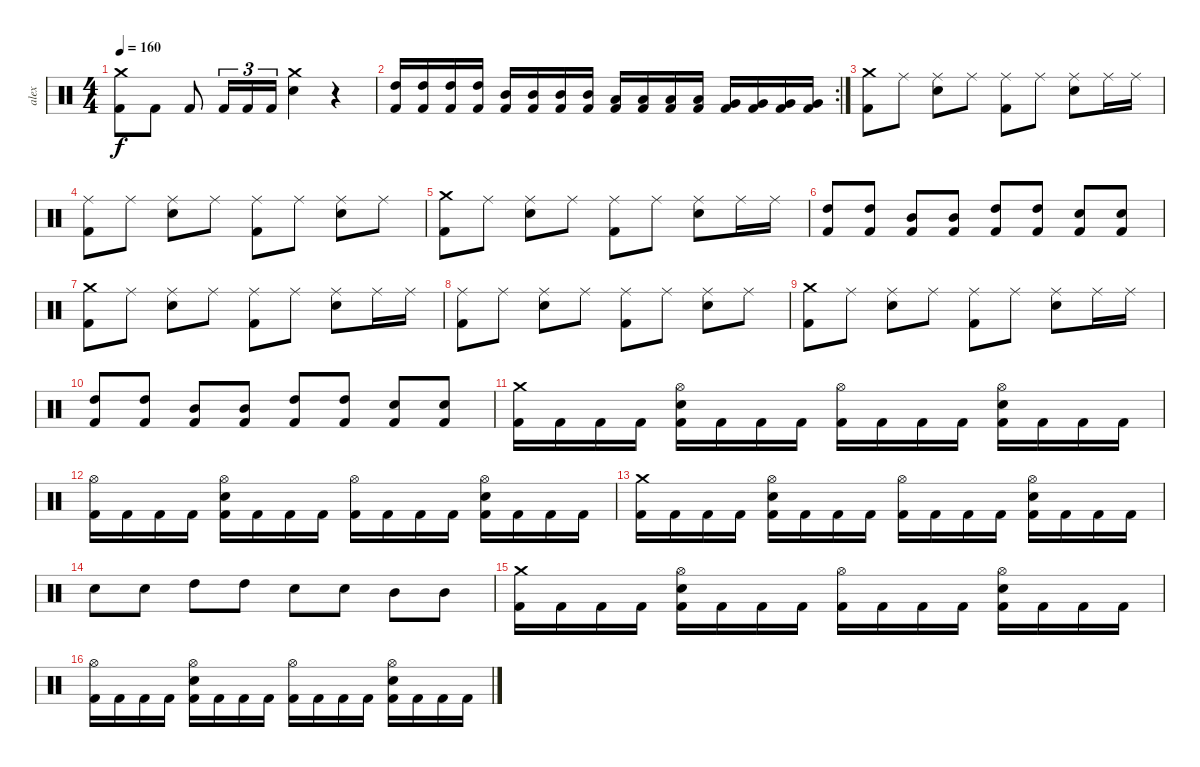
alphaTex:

\track ("alex" "alex") {instrument percussion}
\staff {score}
\articulation defaults
\ts (4 4)
\tempo 160
\clef neutral
\ks c
("Crash medium (hit)" "Kick (hit) 2").8{dy f} "Kick (hit) 2".8 "Kick (hit) 2".8 "Kick (hit) 2".16{tu (3 2)} "Kick (hit) 2".16{tu (3 2)} "Kick (hit) 2".16{tu (3 2)} ("Crash medium (hit)" "Electric Snare (hit)").4 r.4 |
\rc 2
("High Tom (hit)" "Kick (hit) 2").16 ("High Tom (hit)" "Kick (hit) 2").16 ("High Tom (hit)" "Kick (hit) 2").16 ("High Tom (hit)" "Kick (hit) 2").16 ("Mid Tom (hit)" "Kick (hit) 2").16 ("Mid Tom (hit)" "Kick (hit) 2").16 ("Mid Tom (hit)" "Kick (hit) 2").16 ("Mid Tom (hit)" "Kick (hit) 2").16 ("Low Tom (hit)" "Kick (hit) 2").16 ("Low Tom (hit)" "Kick (hit) 2").16 ("Low Tom (hit)" "Kick (hit) 2").16 ("Low Tom (hit)" "Kick (hit) 2").16 ("Very Low Tom (hit)" "Kick (hit) 2").16 ("Very Low Tom (hit)" "Kick (hit) 2").16 ("Very Low Tom (hit)" "Kick (hit) 2").16 ("Very Low Tom (hit)" "Kick (hit) 2").16 |
("Kick (hit) 2" "Crash medium (hit)").8 "Ride (middle)".8 ("Electric Snare (hit)" "Ride (middle)").8 "Ride (middle)".8 ("Kick (hit) 2" "Ride (middle)").8 "Ride (middle)".8 ("Electric Snare (hit)" "Ride (middle)").8 "Ride (middle)".16 "Ride (middle)".16 |
("Kick (hit) 2" "Ride (middle)").8 "Ride (middle)".8 ("Electric Snare (hit)" "Ride (middle)").8 "Ride (middle)".8 ("Kick (hit) 2" "Ride (middle)").8 "Ride (middle)".8 ("Electric Snare (hit)" "Ride (middle)").8 "Ride (middle)".8 |
("Kick (hit) 2" "Crash medium (hit)").8 "Ride (middle)".8 ("Electric Snare (hit)" "Ride (middle)").8 "Ride (middle)".8 ("Kick (hit) 2" "Ride (middle)").8 "Ride (middle)".8 ("Electric Snare (hit)" "Ride (middle)").8 "Ride (middle)".16 "Ride (middle)".16 |
("Kick (hit) 2" "High Tom (hit)").8 ("Kick (hit) 2" "High Tom (hit)").8 ("Kick (hit) 2" "Mid Tom (hit)").8 ("Kick (hit) 2" "Mid Tom (hit)").8 ("Kick (hit) 2" "High Tom (hit)").8 ("Kick (hit) 2" "High Tom (hit)").8 ("Kick (hit) 2" "Electric Snare (hit)").8 ("Kick (hit) 2" "Electric Snare (hit)").8 |
("Kick (hit) 2" "Crash medium (hit)").8 "Ride (middle)".8 ("Electric Snare (hit)" "Ride (middle)").8 "Ride (middle)".8 ("Kick (hit) 2" "Ride (middle)").8 "Ride (middle)".8 ("Electric Snare (hit)" "Ride (middle)").8 "Ride (middle)".16 "Ride (middle)".16 |
("Kick (hit) 2" "Ride (middle)").8 "Ride (middle)".8 ("Electric Snare (hit)" "Ride (middle)").8 "Ride (middle)".8 ("Kick (hit) 2" "Ride (middle)").8 "Ride (middle)".8 ("Electric Snare (hit)" "Ride (middle)").8 "Ride (middle)".8 |
("Kick (hit) 2" "Crash medium (hit)").8 "Ride (middle)".8 ("Electric Snare (hit)" "Ride (middle)").8 "Ride (middle)".8 ("Kick (hit) 2" "Ride (middle)").8 "Ride (middle)".8 ("Electric Snare (hit)" "Ride (middle)").8 "Ride (middle)".16 "Ride (middle)".16 |
("Kick (hit) 2" "High Tom (hit)").8 ("Kick (hit) 2" "High Tom (hit)").8 ("Kick (hit) 2" "Mid Tom (hit)").8 ("Kick (hit) 2" "Mid Tom (hit)").8 ("Kick (hit) 2" "High Tom (hit)").8 ("Kick (hit) 2" "High Tom (hit)").8 ("Kick (hit) 2" "Electric Snare (hit)").8 ("Kick (hit) 2" "Electric Snare (hit)").8 |
("Kick (hit) 2" "Crash medium (hit)").16 "Kick (hit) 2".16 "Kick (hit) 2".16 "Kick (hit) 2".16 ("Hi-Hat (open)" "Kick (hit) 2" "Electric Snare (hit)").16 "Kick (hit) 2".16 "Kick (hit) 2".16 "Kick (hit) 2".16 ("Hi-Hat (open)" "Kick (hit) 2").16 "Kick (hit) 2".16 "Kick (hit) 2".16 "Kick (hit) 2".16 ("Hi-Hat (open)" "Kick (hit) 2" "Electric Snare (hit)").16 "Kick (hit) 2".16 "Kick (hit) 2".16 "Kick (hit) 2".16 |
("Hi-Hat (open)" "Kick (hit) 2").16 "Kick (hit) 2".16 "Kick (hit) 2".16 "Kick (hit) 2".16 ("Hi-Hat (open)" "Kick (hit) 2" "Electric Snare (hit)").16 "Kick (hit) 2".16 "Kick (hit) 2".16 "Kick (hit) 2".16 ("Hi-Hat (open)" "Kick (hit) 2").16 "Kick (hit) 2".16 "Kick (hit) 2".16 "Kick (hit) 2".16 ("Hi-Hat (open)" "Kick (hit) 2" "Electric Snare (hit)").16 "Kick (hit) 2".16 "Kick (hit) 2".16 "Kick (hit) 2".16 |
("Kick (hit) 2" "Crash medium (hit)").16 "Kick (hit) 2".16 "Kick (hit) 2".16 "Kick (hit) 2".16 ("Hi-Hat (open)" "Kick (hit) 2" "Electric Snare (hit)").16 "Kick (hit) 2".16 "Kick (hit) 2".16 "Kick (hit) 2".16 ("Hi-Hat (open)" "Kick (hit) 2").16 "Kick (hit) 2".16 "Kick (hit) 2".16 "Kick (hit) 2".16 ("Hi-Hat (open)" "Kick (hit) 2" "Electric Snare (hit)").16 "Kick (hit) 2".16 "Kick (hit) 2".16 "Kick (hit) 2".16 |
"Electric Snare (hit)".8 "Electric Snare (hit)".8 "High Tom (hit)".8 "High Tom (hit)".8 "Electric Snare (hit)".8 "Electric Snare (hit)".8 "Mid Tom (hit)".8 "Mid Tom (hit)".8 |
("Kick (hit) 2" "Crash medium (hit)").16 "Kick (hit) 2".16 "Kick (hit) 2".16 "Kick (hit) 2".16 ("Hi-Hat (open)" "Kick (hit) 2" "Electric Snare (hit)").16 "Kick (hit) 2".16 "Kick (hit) 2".16 "Kick (hit) 2".16 ("Hi-Hat (open)" "Kick (hit) 2").16 "Kick (hit) 2".16 "Kick (hit) 2".16 "Kick (hit) 2".16 ("Hi-Hat (open)" "Kick (hit) 2" "Electric Snare (hit)").16 "Kick (hit) 2".16 "Kick (hit) 2".16 "Kick (hit) 2".16 |
("Hi-Hat (open)" "Kick (hit) 2").16 "Kick (hit) 2".16 "Kick (hit) 2".16 "Kick (hit) 2".16 ("Hi-Hat (open)" "Kick (hit) 2" "Electric Snare (hit)").16 "Kick (hit) 2".16 "Kick (hit) 2".16 "Kick (hit) 2".16 ("Hi-Hat (open)" "Kick (hit) 2").16 "Kick (hit) 2".16 "Kick (hit) 2".16 "Kick (hit) 2".16 ("Hi-Hat (open)" "Kick (hit) 2" "Electric Snare (hit)").16 "Kick (hit) 2".16 "Kick (hit) 2".16 "Kick (hit) 2".16
